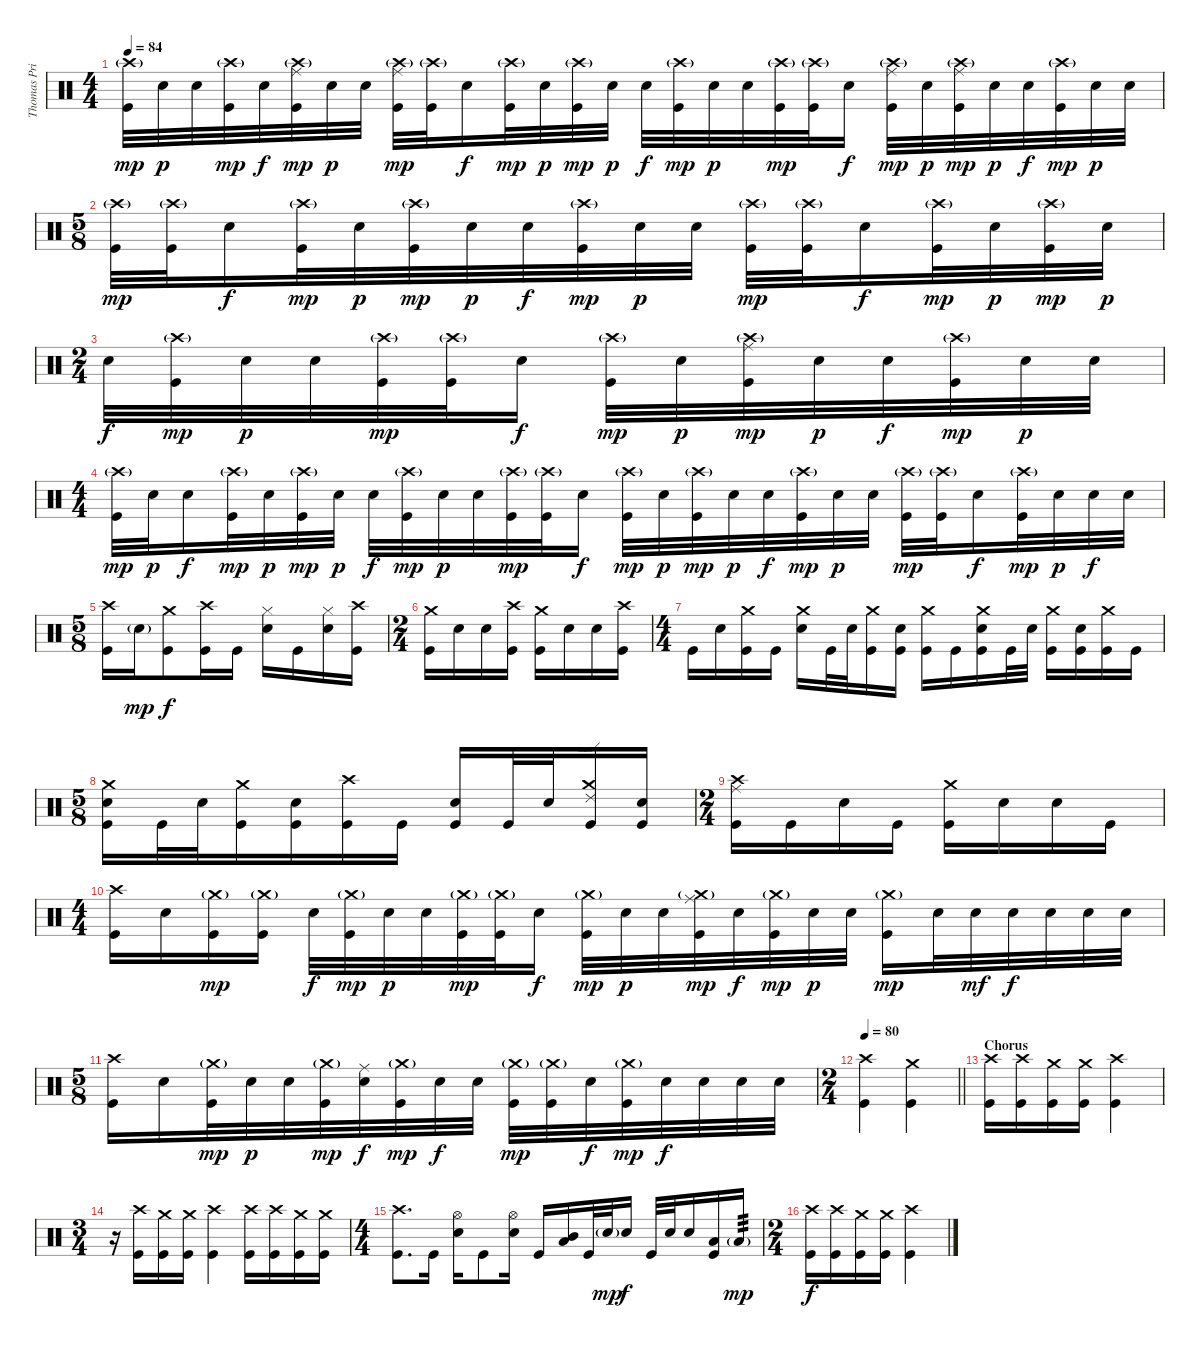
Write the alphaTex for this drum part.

\track ("Thomas Pridgen" "Thomas Pri") {instrument percussion}
\staff {score}
\articulation defaults
\ts (4 4)
\tempo 84
\clef neutral
\ks c
("Crash high (hit)"{g} "Kick (hit)").32{dy mp} "Snare (hit) 2".32{dy p} "Snare (hit) 2".32 ("Crash high (hit)"{g} "Kick (hit)").32{dy mp} "Snare (hit) 2".32{dy f} ("Crash high (hit)"{g} "Ride (middle)" "Kick (hit)").32{dy mp} "Snare (hit) 2".32{dy p} "Snare (hit) 2".32 ("Crash high (hit)"{g} "Ride (middle)" "Kick (hit)").32{dy mp} ("Crash high (hit)"{g} "Kick (hit)").32 "Snare (hit) 2".16{dy f} ("Crash high (hit)"{g} "Kick (hit)").32{dy mp} "Snare (hit) 2".32{dy p} ("Crash high (hit)"{g} "Kick (hit)").32{dy mp} "Snare (hit) 2".32{dy p} "Snare (hit) 2".32{dy f} ("Crash high (hit)"{g} "Kick (hit)").32{dy mp} "Snare (hit) 2".32{dy p} "Snare (hit) 2".32 ("Crash high (hit)"{g} "Kick (hit)").32{dy mp} ("Crash high (hit)"{g} "Kick (hit)").32 "Snare (hit) 2".16{dy f} ("Crash high (hit)"{g} "Ride (middle)" "Kick (hit)").32{dy mp} "Snare (hit) 2".32{dy p} ("Crash high (hit)"{g} "Ride (middle)" "Kick (hit)").32{dy mp} "Snare (hit) 2".32{dy p} "Snare (hit) 2".32{dy f} ("Crash high (hit)"{g} "Kick (hit)").32{dy mp} "Snare (hit) 2".32{dy p} "Snare (hit) 2".32 |
\ts (5 8)
("Crash high (hit)"{g} "Kick (hit)").32{dy mp} ("Crash high (hit)"{g} "Kick (hit)").32 "Snare (hit) 2".16{dy f} ("Crash high (hit)"{g} "Kick (hit)").32{dy mp} "Snare (hit) 2".32{dy p} ("Crash high (hit)"{g} "Kick (hit)").32{dy mp} "Snare (hit) 2".32{dy p} "Snare (hit) 2".32{dy f} ("Crash high (hit)"{g} "Kick (hit)").32{dy mp} "Snare (hit) 2".32{dy p} "Snare (hit) 2".32 ("Crash high (hit)"{g} "Kick (hit)").32{dy mp} ("Crash high (hit)"{g} "Kick (hit)").32 "Snare (hit) 2".16{dy f} ("Crash high (hit)"{g} "Kick (hit)").32{dy mp} "Snare (hit) 2".32{dy p} ("Crash high (hit)"{g} "Kick (hit)").32{dy mp} "Snare (hit) 2".32{dy p} |
\ts (2 4)
"Snare (hit) 2".32{dy f} ("Crash high (hit)"{g} "Kick (hit)").32{dy mp} "Snare (hit) 2".32{dy p} "Snare (hit) 2".32 ("Crash high (hit)"{g} "Kick (hit)").32{dy mp} ("Crash high (hit)"{g} "Kick (hit)").32 "Snare (hit) 2".16{dy f} ("Crash high (hit)"{g} "Kick (hit)").32{dy mp} "Snare (hit) 2".32{dy p} ("Crash high (hit)"{g} "Ride (middle)" "Kick (hit)").32{dy mp} "Snare (hit) 2".32{dy p} "Snare (hit) 2".32{dy f} ("Crash high (hit)"{g} "Kick (hit)").32{dy mp} "Snare (hit) 2".32{dy p} "Snare (hit) 2".32 |
\ts (4 4)
("Crash high (hit)"{g} "Kick (hit)").32{dy mp} "Snare (hit) 2".32{dy p} "Snare (hit) 2".16{dy f} ("Crash high (hit)"{g} "Kick (hit)").32{dy mp} "Snare (hit) 2".32{dy p} ("Crash high (hit)"{g} "Kick (hit)").32{dy mp} "Snare (hit) 2".32{dy p} "Snare (hit) 2".32{dy f} ("Crash high (hit)"{g} "Kick (hit)").32{dy mp} "Snare (hit) 2".32{dy p} "Snare (hit) 2".32 ("Crash high (hit)"{g} "Kick (hit)").32{dy mp} ("Crash high (hit)"{g} "Kick (hit)").32 "Snare (hit) 2".16{dy f} ("Crash high (hit)"{g} "Kick (hit)").32{dy mp} "Snare (hit) 2".32{dy p} ("Crash high (hit)"{g} "Kick (hit)").32{dy mp} "Snare (hit) 2".32{dy p} "Snare (hit) 2".32{dy f} ("Crash high (hit)"{g} "Kick (hit)").32{dy mp} "Snare (hit) 2".32{dy p} "Snare (hit) 2".32 ("Crash high (hit)"{g} "Kick (hit)").32{dy mp} ("Crash high (hit)"{g} "Kick (hit)").32 "Snare (hit) 2".16{dy f} ("Crash high (hit)"{g} "Kick (hit)").32{dy mp} "Snare (hit) 2".32{dy p} "Snare (hit) 2".32{dy f} "Snare (hit) 2".32 |
\ts (5 8)
("Crash high (hit)" "Kick (hit)").16 "Snare (hit) 2"{g}.16{dy mp} ("Crash medium (hit)" "Kick (hit)").8{dy f} ("Crash high (hit)" "Kick (hit)").16 "Kick (hit)".16 ("Hi-Hat (closed)" "Snare (hit) 2").16 "Kick (hit)".16 ("Hi-Hat (closed)" "Snare (hit) 2").16 ("Crash high (hit)" "Kick (hit)").16 |
\ts (2 4)
("Crash medium (hit)" "Kick (hit)").16 "Snare (hit) 2".16 "Snare (hit) 2".16 ("Crash high (hit)" "Kick (hit)").16 ("Crash medium (hit)" "Kick (hit)").16 "Snare (hit) 2".16 "Snare (hit) 2".16 ("Crash high (hit)" "Kick (hit)").16 |
\ts (4 4)
"Kick (hit)".16 "Snare (hit) 2".16 ("Crash medium (hit)" "Kick (hit)").16 "Kick (hit)".16 ("Crash medium (hit)" "Snare (hit) 2").16 "Kick (hit)".32 "Snare (hit) 2".32 ("Crash medium (hit)" "Kick (hit)").16 ("Snare (hit) 2" "Kick (hit)").16 ("Crash medium (hit)" "Kick (hit)").16 "Kick (hit)".16 ("Crash medium (hit)" "Snare (hit) 2" "Kick (hit)").16 "Kick (hit)".32 "Snare (hit) 2".32 ("Crash medium (hit)" "Kick (hit)").16 ("Snare (hit) 2" "Kick (hit)").16 ("Crash medium (hit)" "Kick (hit)").16 "Kick (hit)".16 |
\ts (5 8)
("Crash medium (hit)" "Snare (hit) 2" "Kick (hit)").16 "Kick (hit)".32 "Snare (hit) 2".32 ("Crash medium (hit)" "Kick (hit)").16 ("Snare (hit) 2" "Kick (hit)").16 ("Crash high (hit)" "Kick (hit)").16 "Kick (hit)".16 ("Snare (hit) 2" "Kick (hit)").16 "Kick (hit)".32 "Snare (hit) 2".32 ("Crash medium (hit)" "Ride (edge) 2" "Kick (hit)").16 ("Snare (hit) 2" "Kick (hit)").16 |
\ts (2 4)
("Crash high (hit)" "Ride (middle)" "Kick (hit)").16 "Kick (hit)".16 "Snare (hit) 2".16 "Kick (hit)".16 ("Crash medium (hit)" "Kick (hit)").16 "Snare (hit) 2".16 "Snare (hit) 2".16 "Kick (hit)".16 |
\ts (4 4)
("Crash high (hit)" "Kick (hit)").16 "Snare (hit) 2".16 ("Crash medium (hit)"{g} "Kick (hit)").16{dy mp} ("Crash medium (hit)"{g} "Kick (hit)").16 "Snare (hit) 2".32{dy f} ("Crash medium (hit)"{g} "Kick (hit)").32{dy mp} "Snare (hit) 2".32{dy p} "Snare (hit) 2".32 ("Crash medium (hit)"{g} "Kick (hit)").32{dy mp} ("Crash medium (hit)"{g} "Kick (hit)").32 "Snare (hit) 2".16{dy f} ("Crash medium (hit)"{g} "Kick (hit)").32{dy mp} "Snare (hit) 2".32{dy p} "Snare (hit) 2".32 ("Crash medium (hit)"{g} "Ride (middle)" "Kick (hit)").32{dy mp} "Snare (hit) 2".32{dy f} ("Crash medium (hit)"{g} "Kick (hit)").32{dy mp} "Snare (hit) 2".32{dy p} "Snare (hit) 2".32 ("Crash medium (hit)"{g} "Kick (hit)").16{dy mp} "Snare (hit) 2".32 "Snare (hit) 2".32{dy mf} "Snare (hit) 2".32{dy f} "Snare (hit) 2".32 "Snare (hit) 2".32 "Snare (hit) 2".32 |
\ts (5 8)
("Crash high (hit)" "Kick (hit)").16 "Snare (hit) 2".16 ("Crash medium (hit)"{g} "Kick (hit)").32{dy mp} "Snare (hit) 2".32{dy p} "Snare (hit) 2".32 ("Crash medium (hit)"{g} "Kick (hit)").32{dy mp} ("Ride (middle)" "Snare (hit) 2").32{dy f} ("Crash medium (hit)"{g} "Kick (hit)").32{dy mp} "Snare (hit) 2".32{dy f} "Snare (hit) 2".32 ("Crash medium (hit)"{g} "Kick (hit)").32{dy mp} ("Crash medium (hit)"{g} "Kick (hit)").32 "Snare (hit) 2".32{dy f} ("Crash medium (hit)"{g} "Kick (hit)").32{dy mp} "Snare (hit) 2".32{dy f} "Snare (hit) 2".32 "Snare (hit) 2".32 "Snare (hit) 2".32 |
\ts (2 4)
\tempo 80
\barLineRight lightlight
("Crash high (hit)" "Kick (hit)").4 ("Crash medium (hit)" "Kick (hit)").4 |
\section ("" "Chorus")
("Crash high (hit)" "Kick (hit)").16 ("Crash high (hit)" "Kick (hit)").16 ("Crash medium (hit)" "Kick (hit)").16 ("Crash medium (hit)" "Kick (hit)").16 ("Crash high (hit)" "Kick (hit)").4 |
\ts (3 4)
r.16 ("Crash high (hit)" "Kick (hit)").16 ("Crash medium (hit)" "Kick (hit)").16 ("Crash medium (hit)" "Kick (hit)").16 ("Crash high (hit)" "Kick (hit)").4 ("Crash high (hit)" "Kick (hit)").16 ("Crash high (hit)" "Kick (hit)").16 ("Crash medium (hit)" "Kick (hit)").16 ("Crash medium (hit)" "Kick (hit)").16 |
\ts (4 4)
("Crash high (hit)" "Kick (hit)").8{d} "Kick (hit)".16 ("Hi-Hat (open)" "Snare (hit) 2").16 "Kick (hit)".8 ("Hi-Hat (open)" "Snare (hit) 2").16 "Kick (hit)".16 ("Mid Tom (hit)" "Low Tom (hit)").16 "Kick (hit)".32 "Snare (hit) 2"{g}.32{dy mp} "Snare (hit) 2".16{dy f} "Kick (hit)".32 "Snare (hit) 2".32 "Snare (hit) 2".16 ("Low Floor Tom (hit)" "Kick (hit)").16 "Low Floor Tom (hit)"{g}.16{tp 3 dy mp} |
\ts (2 4)
("Crash high (hit)" "Kick (hit)").16{dy f} ("Crash high (hit)" "Kick (hit)").16 ("Crash medium (hit)" "Kick (hit)").16 ("Crash medium (hit)" "Kick (hit)").16 ("Crash high (hit)" "Kick (hit)").4
